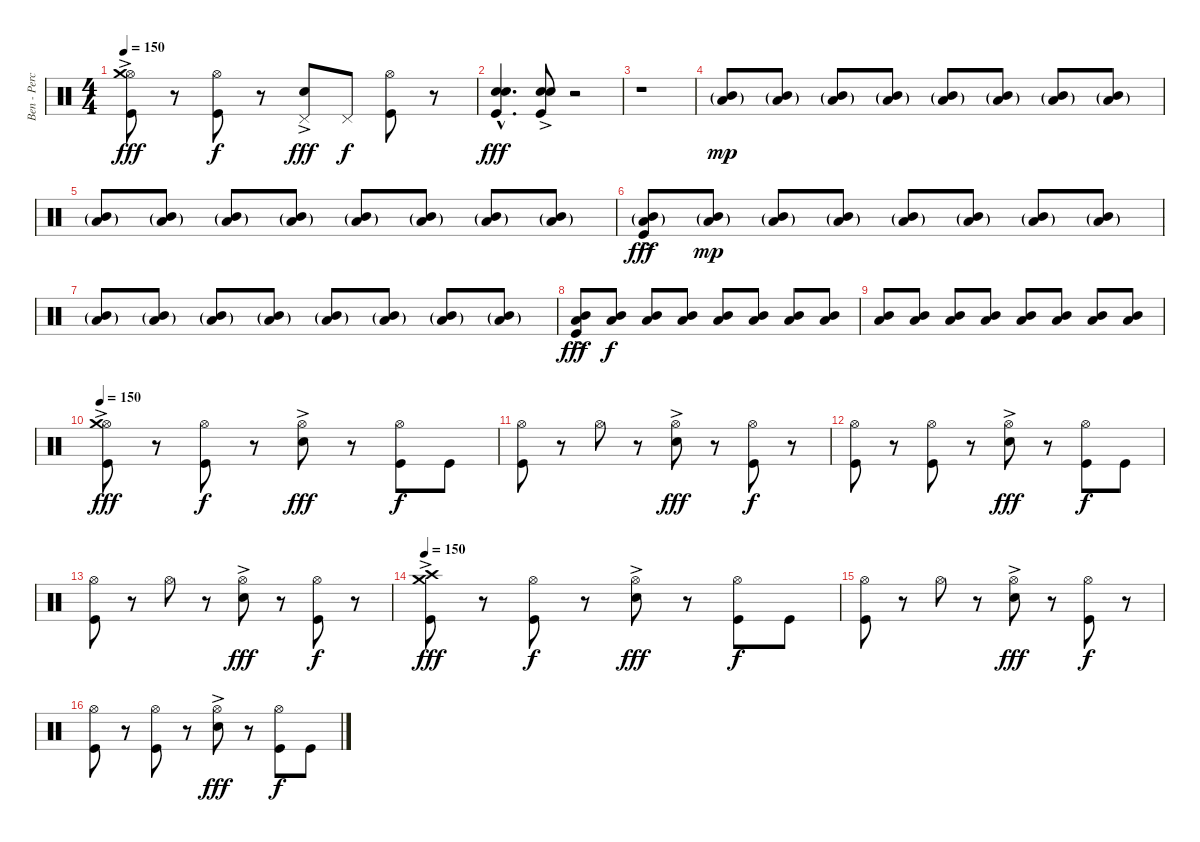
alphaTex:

\track ("Ben - Perception Twin - Drums" "Ben - Perc") {instrument percussion}
\staff {score}
\articulation defaults
\ts (4 4)
\tempo 150
\clef neutral
\ks c
("Hi-Hat (open)"{ac} "Crash medium (hit)"{ac} "Kick (hit)").8{dy fff} r.8 ("Hi-Hat (open)" "Kick (hit)").8{dy f} r.8 ("Pedal Hi-Hat (hit)" "Electric Snare (hit)"{ac}).8{dy fff} "Pedal Hi-Hat (hit)".8{dy f} ("Hi-Hat (open)" "Kick (hit)").8 r.8 |
("Electric Snare (hit)"{hac} "Electric Snare (hit)"{hac} "Kick (hit)"{hac}).4{d dy fff} ("Electric Snare (hit)"{ac} "Electric Snare (hit)"{ac} "Kick (hit)"{ac}).8 r.2 |
r.1 |
("Mid Tom (hit)"{g} "Low Tom (hit)"{g}).8{dy mp volume 8} ("Mid Tom (hit)"{g} "Low Tom (hit)"{g}).8 ("Mid Tom (hit)"{g} "Low Tom (hit)"{g}).8 ("Mid Tom (hit)"{g} "Low Tom (hit)"{g}).8 ("Mid Tom (hit)"{g} "Low Tom (hit)"{g}).8 ("Mid Tom (hit)"{g} "Low Tom (hit)"{g}).8 ("Mid Tom (hit)"{g} "Low Tom (hit)"{g}).8 ("Mid Tom (hit)"{g} "Low Tom (hit)"{g}).8 |
("Mid Tom (hit)"{g} "Low Tom (hit)"{g}).8 ("Mid Tom (hit)"{g} "Low Tom (hit)"{g}).8 ("Mid Tom (hit)"{g} "Low Tom (hit)"{g}).8 ("Mid Tom (hit)"{g} "Low Tom (hit)"{g}).8 ("Mid Tom (hit)"{g} "Low Tom (hit)"{g}).8 ("Mid Tom (hit)"{g} "Low Tom (hit)"{g}).8 ("Mid Tom (hit)"{g} "Low Tom (hit)"{g}).8 ("Mid Tom (hit)"{g} "Low Tom (hit)"{g}).8 |
("Mid Tom (hit)"{g} "Low Tom (hit)"{g} "Kick (hit)"{ac}).8{dy fff volume 10} ("Mid Tom (hit)"{g} "Low Tom (hit)"{g}).8{dy mp} ("Mid Tom (hit)"{g} "Low Tom (hit)"{g}).8 ("Mid Tom (hit)"{g} "Low Tom (hit)"{g}).8 ("Mid Tom (hit)"{g} "Low Tom (hit)"{g}).8 ("Mid Tom (hit)"{g} "Low Tom (hit)"{g}).8 ("Mid Tom (hit)"{g} "Low Tom (hit)"{g}).8 ("Mid Tom (hit)"{g} "Low Tom (hit)"{g}).8 |
("Mid Tom (hit)"{g} "Low Tom (hit)"{g}).8 ("Mid Tom (hit)"{g} "Low Tom (hit)"{g}).8 ("Mid Tom (hit)"{g} "Low Tom (hit)"{g}).8 ("Mid Tom (hit)"{g} "Low Tom (hit)"{g}).8 ("Mid Tom (hit)"{g} "Low Tom (hit)"{g}).8 ("Mid Tom (hit)"{g} "Low Tom (hit)"{g}).8 ("Mid Tom (hit)"{g} "Low Tom (hit)"{g}).8 ("Mid Tom (hit)"{g} "Low Tom (hit)"{g}).8 |
("Mid Tom (hit)" "Low Tom (hit)" "Kick (hit)"{ac}).8{dy fff} ("Mid Tom (hit)" "Low Tom (hit)").8{dy f} ("Mid Tom (hit)" "Low Tom (hit)").8{volume 10} ("Mid Tom (hit)" "Low Tom (hit)").8 ("Mid Tom (hit)" "Low Tom (hit)").8 ("Mid Tom (hit)" "Low Tom (hit)").8 ("Mid Tom (hit)" "Low Tom (hit)").8{volume 11} ("Mid Tom (hit)" "Low Tom (hit)").8 |
("Mid Tom (hit)" "Low Tom (hit)").8 ("Mid Tom (hit)" "Low Tom (hit)").8 ("Mid Tom (hit)" "Low Tom (hit)").8{volume 12} ("Mid Tom (hit)" "Low Tom (hit)").8 ("Mid Tom (hit)" "Low Tom (hit)").8{volume 16} ("Mid Tom (hit)" "Low Tom (hit)").8 ("Mid Tom (hit)" "Low Tom (hit)").8 ("Mid Tom (hit)" "Low Tom (hit)").8 |
\tempo 150
("Hi-Hat (open)" "Crash medium (hit)"{ac} "Kick (hit)").8{dy fff} r.8 ("Hi-Hat (open)" "Kick (hit)").8{dy f} r.8 ("Hi-Hat (open)" "Electric Snare (hit)"{ac}).8{dy fff} r.8 ("Hi-Hat (open)" "Kick (hit)").8{dy f} "Kick (hit)".8 |
("Hi-Hat (open)" "Kick (hit)").8 r.8 "Hi-Hat (open)".8 r.8 ("Hi-Hat (open)" "Electric Snare (hit)"{ac}).8{dy fff} r.8 ("Hi-Hat (open)" "Kick (hit)").8{dy f} r.8 |
("Hi-Hat (open)" "Kick (hit)").8 r.8 ("Hi-Hat (open)" "Kick (hit)").8 r.8 ("Hi-Hat (open)" "Electric Snare (hit)"{ac}).8{dy fff} r.8 ("Hi-Hat (open)" "Kick (hit)").8{dy f} "Kick (hit)".8 |
("Hi-Hat (open)" "Kick (hit)").8 r.8 "Hi-Hat (open)".8 r.8 ("Hi-Hat (open)" "Electric Snare (hit)"{ac}).8{dy fff} r.8 ("Hi-Hat (open)" "Kick (hit)").8{dy f} r.8 |
\tempo 150
("Crash high (hit)"{ac} "Crash medium (hit)"{ac} "Kick (hit)").8{dy fff} r.8 ("Hi-Hat (open)" "Kick (hit)").8{dy f} r.8 ("Hi-Hat (open)" "Electric Snare (hit)"{ac}).8{dy fff} r.8 ("Hi-Hat (open)" "Kick (hit)").8{dy f} "Kick (hit)".8 |
("Hi-Hat (open)" "Kick (hit)").8 r.8 "Hi-Hat (open)".8 r.8 ("Hi-Hat (open)" "Electric Snare (hit)"{ac}).8{dy fff} r.8 ("Hi-Hat (open)" "Kick (hit)").8{dy f} r.8 |
("Hi-Hat (open)" "Kick (hit)").8 r.8 ("Hi-Hat (open)" "Kick (hit)").8 r.8 ("Hi-Hat (open)" "Electric Snare (hit)"{ac}).8{dy fff} r.8 ("Hi-Hat (open)" "Kick (hit)").8{dy f} "Kick (hit)".8
